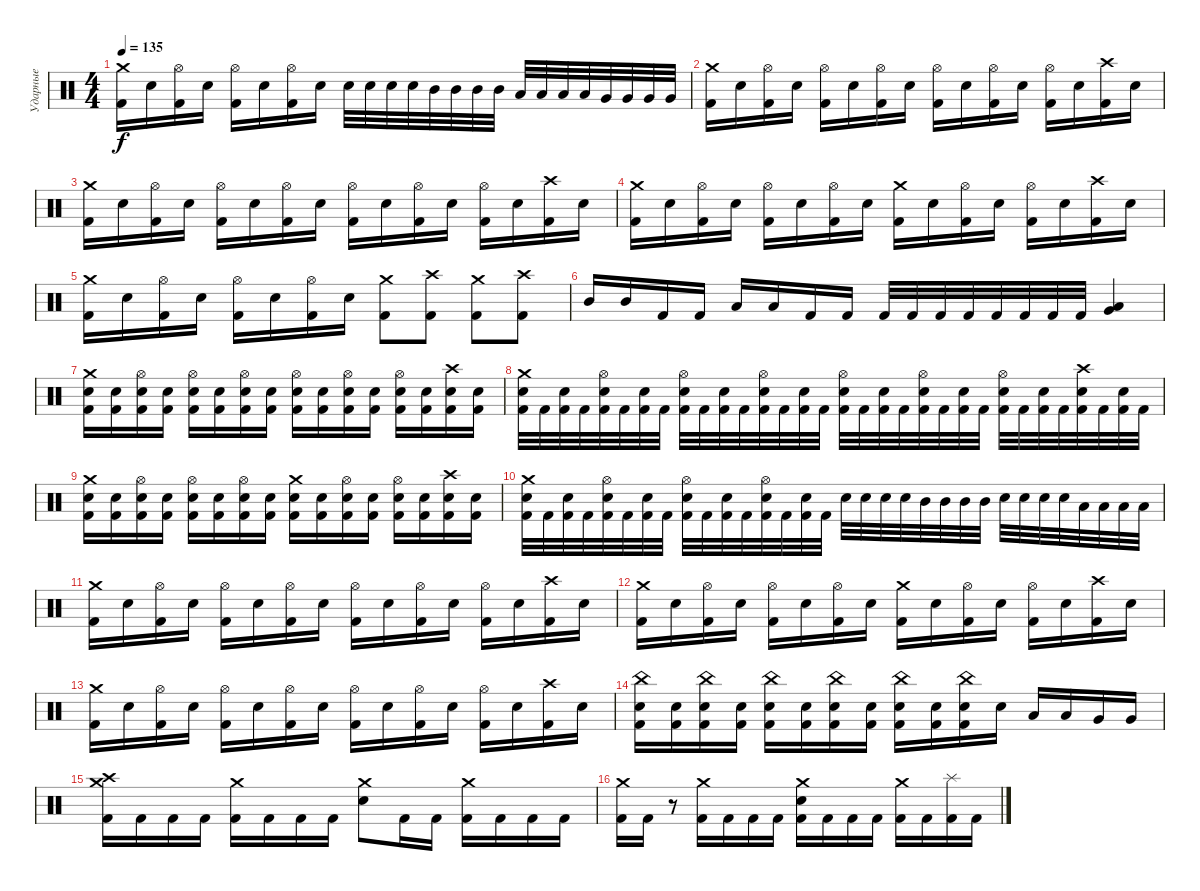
\track ("Ударные" "Ударные") {instrument percussion}
\staff {score}
\articulation defaults
\ts (4 4)
\tempo 135
\clef neutral
\ks c
("Crash medium (hit)" "Kick (hit) 2").16{dy f} "Electric Snare (hit)".16 ("Hi-Hat (open)" "Kick (hit) 2").16 "Electric Snare (hit)".16 ("Hi-Hat (open)" "Kick (hit) 2").16 "Electric Snare (hit)".16 ("Hi-Hat (open)" "Kick (hit) 2").16 "Electric Snare (hit)".16 "Electric Snare (hit)".32 "Electric Snare (hit)".32 "Electric Snare (hit)".32 "Electric Snare (hit)".32 "Mid Tom (hit)".32 "Mid Tom (hit)".32 "Mid Tom (hit)".32 "Mid Tom (hit)".32 "Low Tom (hit)".32 "Low Tom (hit)".32 "Low Tom (hit)".32 "Low Tom (hit)".32 "Very Low Tom (hit)".32 "Very Low Tom (hit)".32 "Very Low Tom (hit)".32 "Very Low Tom (hit)".32 |
("Crash medium (hit)" "Kick (hit) 2").16 "Electric Snare (hit)".16 ("Hi-Hat (open)" "Kick (hit) 2").16 "Electric Snare (hit)".16 ("Hi-Hat (open)" "Kick (hit) 2").16 "Electric Snare (hit)".16 ("Hi-Hat (open)" "Kick (hit) 2").16 "Electric Snare (hit)".16 ("Hi-Hat (open)" "Kick (hit) 2").16 "Electric Snare (hit)".16 ("Hi-Hat (open)" "Kick (hit) 2").16 "Electric Snare (hit)".16 ("Hi-Hat (open)" "Kick (hit) 2").16 "Electric Snare (hit)".16 ("Crash high (hit)" "Kick (hit) 2").16 "Electric Snare (hit)".16 |
("Crash medium (hit)" "Kick (hit) 2").16 "Electric Snare (hit)".16 ("Hi-Hat (open)" "Kick (hit) 2").16 "Electric Snare (hit)".16 ("Hi-Hat (open)" "Kick (hit) 2").16 "Electric Snare (hit)".16 ("Hi-Hat (open)" "Kick (hit) 2").16 "Electric Snare (hit)".16 ("Hi-Hat (open)" "Kick (hit) 2").16 "Electric Snare (hit)".16 ("Hi-Hat (open)" "Kick (hit) 2").16 "Electric Snare (hit)".16 ("Hi-Hat (open)" "Kick (hit) 2").16 "Electric Snare (hit)".16 ("Crash high (hit)" "Kick (hit) 2").16 "Electric Snare (hit)".16 |
("Crash medium (hit)" "Kick (hit) 2").16 "Electric Snare (hit)".16 ("Hi-Hat (open)" "Kick (hit) 2").16 "Electric Snare (hit)".16 ("Hi-Hat (open)" "Kick (hit) 2").16 "Electric Snare (hit)".16 ("Hi-Hat (open)" "Kick (hit) 2").16 "Electric Snare (hit)".16 ("Crash medium (hit)" "Kick (hit) 2").16 "Electric Snare (hit)".16 ("Hi-Hat (open)" "Kick (hit) 2").16 "Electric Snare (hit)".16 ("Hi-Hat (open)" "Kick (hit) 2").16 "Electric Snare (hit)".16 ("Crash high (hit)" "Kick (hit) 2").16 "Electric Snare (hit)".16 |
("Crash medium (hit)" "Kick (hit) 2").16 "Electric Snare (hit)".16 ("Hi-Hat (open)" "Kick (hit) 2").16 "Electric Snare (hit)".16 ("Hi-Hat (open)" "Kick (hit) 2").16 "Electric Snare (hit)".16 ("Hi-Hat (open)" "Kick (hit) 2").16 "Electric Snare (hit)".16 ("Crash medium (hit)" "Kick (hit) 2").8 ("Crash high (hit)" "Kick (hit) 2").8 ("Crash medium (hit)" "Kick (hit) 2").8 ("Crash high (hit)" "Kick (hit) 2").8 |
"Mid Tom (hit)".16 "Mid Tom (hit)".16 "Kick (hit) 2".16 "Kick (hit) 2".16 "Low Tom (hit)".16 "Low Tom (hit)".16 "Kick (hit) 2".16 "Kick (hit) 2".16 "Kick (hit) 2".32 "Kick (hit) 2".32 "Kick (hit) 2".32 "Kick (hit) 2".32 "Kick (hit) 2".32 "Kick (hit) 2".32 "Kick (hit) 2".32 "Kick (hit) 2".32 ("Low Tom (hit)" "Very Low Tom (hit)").4 |
("Crash medium (hit)" "Electric Snare (hit)" "Kick (hit) 2").16 ("Electric Snare (hit)" "Kick (hit) 2").16 ("Hi-Hat (open)" "Electric Snare (hit)" "Kick (hit) 2").16 ("Electric Snare (hit)" "Kick (hit) 2").16 ("Hi-Hat (open)" "Electric Snare (hit)" "Kick (hit) 2").16 ("Electric Snare (hit)" "Kick (hit) 2").16 ("Hi-Hat (open)" "Electric Snare (hit)" "Kick (hit) 2").16 ("Electric Snare (hit)" "Kick (hit) 2").16 ("Hi-Hat (open)" "Electric Snare (hit)" "Kick (hit) 2").16 ("Electric Snare (hit)" "Kick (hit) 2").16 ("Hi-Hat (open)" "Electric Snare (hit)" "Kick (hit) 2").16 ("Electric Snare (hit)" "Kick (hit) 2").16 ("Hi-Hat (open)" "Electric Snare (hit)" "Kick (hit) 2").16 ("Electric Snare (hit)" "Kick (hit) 2").16 ("Crash high (hit)" "Electric Snare (hit)" "Kick (hit) 2").16 ("Electric Snare (hit)" "Kick (hit) 2").16 |
("Crash medium (hit)" "Electric Snare (hit)" "Kick (hit) 2").32 "Kick (hit) 2".32 ("Electric Snare (hit)" "Kick (hit) 2").32 "Kick (hit) 2".32 ("Hi-Hat (open)" "Electric Snare (hit)" "Kick (hit) 2").32 "Kick (hit) 2".32 ("Electric Snare (hit)" "Kick (hit) 2").32 "Kick (hit) 2".32 ("Hi-Hat (open)" "Electric Snare (hit)" "Kick (hit) 2").32 "Kick (hit) 2".32 ("Electric Snare (hit)" "Kick (hit) 2").32 "Kick (hit) 2".32 ("Hi-Hat (open)" "Electric Snare (hit)" "Kick (hit) 2").32 "Kick (hit) 2".32 ("Electric Snare (hit)" "Kick (hit) 2").32 "Kick (hit) 2".32 ("Hi-Hat (open)" "Electric Snare (hit)" "Kick (hit) 2").32 "Kick (hit) 2".32 ("Electric Snare (hit)" "Kick (hit) 2").32 "Kick (hit) 2".32 ("Hi-Hat (open)" "Electric Snare (hit)" "Kick (hit) 2").32 "Kick (hit) 2".32 ("Electric Snare (hit)" "Kick (hit) 2").32 "Kick (hit) 2".32 ("Hi-Hat (open)" "Electric Snare (hit)" "Kick (hit) 2").32 "Kick (hit) 2".32 ("Electric Snare (hit)" "Kick (hit) 2").32 "Kick (hit) 2".32 ("Crash high (hit)" "Electric Snare (hit)" "Kick (hit) 2").32 "Kick (hit) 2".32 ("Electric Snare (hit)" "Kick (hit) 2").32 "Kick (hit) 2".32 |
("Crash medium (hit)" "Electric Snare (hit)" "Kick (hit) 2").16 ("Electric Snare (hit)" "Kick (hit) 2").16 ("Hi-Hat (open)" "Electric Snare (hit)" "Kick (hit) 2").16 ("Electric Snare (hit)" "Kick (hit) 2").16 ("Hi-Hat (open)" "Electric Snare (hit)" "Kick (hit) 2").16 ("Electric Snare (hit)" "Kick (hit) 2").16 ("Hi-Hat (open)" "Electric Snare (hit)" "Kick (hit) 2").16 ("Electric Snare (hit)" "Kick (hit) 2").16 ("Crash medium (hit)" "Electric Snare (hit)" "Kick (hit) 2").16 ("Electric Snare (hit)" "Kick (hit) 2").16 ("Hi-Hat (open)" "Electric Snare (hit)" "Kick (hit) 2").16 ("Electric Snare (hit)" "Kick (hit) 2").16 ("Hi-Hat (open)" "Electric Snare (hit)" "Kick (hit) 2").16 ("Electric Snare (hit)" "Kick (hit) 2").16 ("Crash high (hit)" "Electric Snare (hit)" "Kick (hit) 2").16 ("Electric Snare (hit)" "Kick (hit) 2").16 |
("Crash medium (hit)" "Electric Snare (hit)" "Kick (hit) 2").32 "Kick (hit) 2".32 ("Electric Snare (hit)" "Kick (hit) 2").32 "Kick (hit) 2".32 ("Hi-Hat (open)" "Electric Snare (hit)" "Kick (hit) 2").32 "Kick (hit) 2".32 ("Electric Snare (hit)" "Kick (hit) 2").32 "Kick (hit) 2".32 ("Hi-Hat (open)" "Electric Snare (hit)" "Kick (hit) 2").32 "Kick (hit) 2".32 ("Electric Snare (hit)" "Kick (hit) 2").32 "Kick (hit) 2".32 ("Hi-Hat (open)" "Electric Snare (hit)" "Kick (hit) 2").32 "Kick (hit) 2".32 ("Electric Snare (hit)" "Kick (hit) 2").32 "Kick (hit) 2".32 "Electric Snare (hit)".32 "Electric Snare (hit)".32 "Electric Snare (hit)".32 "Electric Snare (hit)".32 "Mid Tom (hit)".32 "Mid Tom (hit)".32 "Mid Tom (hit)".32 "Mid Tom (hit)".32 "Electric Snare (hit)".32 "Electric Snare (hit)".32 "Electric Snare (hit)".32 "Electric Snare (hit)".32 "Low Tom (hit)".32 "Low Tom (hit)".32 "Low Tom (hit)".32 "Low Tom (hit)".32 |
("Crash medium (hit)" "Kick (hit) 2").16 "Electric Snare (hit)".16 ("Hi-Hat (open)" "Kick (hit) 2").16 "Electric Snare (hit)".16 ("Hi-Hat (open)" "Kick (hit) 2").16 "Electric Snare (hit)".16 ("Hi-Hat (open)" "Kick (hit) 2").16 "Electric Snare (hit)".16 ("Hi-Hat (open)" "Kick (hit) 2").16 "Electric Snare (hit)".16 ("Hi-Hat (open)" "Kick (hit) 2").16 "Electric Snare (hit)".16 ("Hi-Hat (open)" "Kick (hit) 2").16 "Electric Snare (hit)".16 ("Crash high (hit)" "Kick (hit) 2").16 "Electric Snare (hit)".16 |
("Crash medium (hit)" "Kick (hit) 2").16 "Electric Snare (hit)".16 ("Hi-Hat (open)" "Kick (hit) 2").16 "Electric Snare (hit)".16 ("Hi-Hat (open)" "Kick (hit) 2").16 "Electric Snare (hit)".16 ("Hi-Hat (open)" "Kick (hit) 2").16 "Electric Snare (hit)".16 ("Crash medium (hit)" "Kick (hit) 2").16 "Electric Snare (hit)".16 ("Hi-Hat (open)" "Kick (hit) 2").16 "Electric Snare (hit)".16 ("Hi-Hat (open)" "Kick (hit) 2").16 "Electric Snare (hit)".16 ("Crash high (hit)" "Kick (hit) 2").16 "Electric Snare (hit)".16 |
("Crash medium (hit)" "Kick (hit) 2").16 "Electric Snare (hit)".16 ("Hi-Hat (open)" "Kick (hit) 2").16 "Electric Snare (hit)".16 ("Hi-Hat (open)" "Kick (hit) 2").16 "Electric Snare (hit)".16 ("Hi-Hat (open)" "Kick (hit) 2").16 "Electric Snare (hit)".16 ("Hi-Hat (open)" "Kick (hit) 2").16 "Electric Snare (hit)".16 ("Hi-Hat (open)" "Kick (hit) 2").16 "Electric Snare (hit)".16 ("Hi-Hat (open)" "Kick (hit) 2").16 "Electric Snare (hit)".16 ("Crash high (hit)" "Kick (hit) 2").16 "Electric Snare (hit)".16 |
("China (hit)" "Electric Snare (hit)" "Kick (hit) 2").16 ("Electric Snare (hit)" "Kick (hit) 2").16 ("China (hit)" "Electric Snare (hit)" "Kick (hit) 2").16 ("Electric Snare (hit)" "Kick (hit) 2").16 ("China (hit)" "Electric Snare (hit)" "Kick (hit) 2").16 ("Electric Snare (hit)" "Kick (hit) 2").16 ("China (hit)" "Electric Snare (hit)" "Kick (hit) 2").16 ("Electric Snare (hit)" "Kick (hit) 2").16 ("China (hit)" "Electric Snare (hit)" "Kick (hit) 2").16 ("Electric Snare (hit)" "Kick (hit) 2").16 ("China (hit)" "Electric Snare (hit)" "Kick (hit) 2").16 "Electric Snare (hit)".16 "Low Tom (hit)".16 "Low Tom (hit)".16 "Very Low Tom (hit)".16 "Very Low Tom (hit)".16 |
("Crash medium (hit)" "Crash high (hit)" "Kick (hit) 2").16 "Kick (hit) 2".16 "Kick (hit) 2".16 "Kick (hit) 2".16 ("Crash medium (hit)" "Kick (hit) 2").16 "Kick (hit) 2".16 "Kick (hit) 2".16 "Kick (hit) 2".16 ("Crash medium (hit)" "Electric Snare (hit)").8 "Kick (hit) 2".16 "Kick (hit) 2".16 ("Crash medium (hit)" "Kick (hit) 2").16 "Kick (hit) 2".16 "Kick (hit) 2".16 "Kick (hit) 2".16 |
("Crash medium (hit)" "Kick (hit) 2").16 "Kick (hit) 2".16 r.8 ("Crash medium (hit)" "Kick (hit) 2").16 "Kick (hit) 2".16 "Kick (hit) 2".16 "Kick (hit) 2".16 ("Crash medium (hit)" "Electric Snare (hit)" "Kick (hit) 2").16 "Kick (hit) 2".16 "Kick (hit) 2".16 "Kick (hit) 2".16 ("Crash medium (hit)" "Kick (hit) 2").16 "Kick (hit) 2".16 ("Splash (hit)" "Kick (hit) 2").16 "Kick (hit) 2".16
